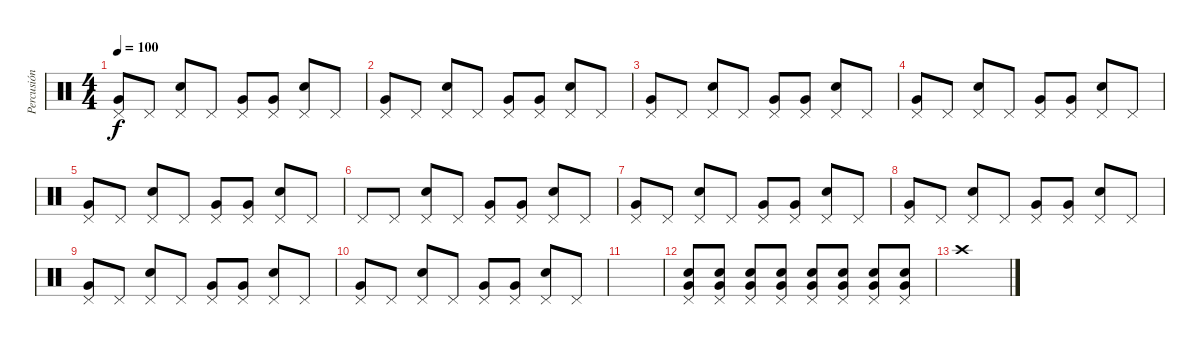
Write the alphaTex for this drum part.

\track ("Percusión" "Percusión") {instrument percussion}
\staff {score}
\articulation defaults
\ts (4 4)
\tempo 100
\clef neutral
\ks c
("Pedal Hi-Hat (hit)" "Very Low Tom (hit)").8{dy f} "Pedal Hi-Hat (hit)".8 ("Pedal Hi-Hat (hit)" "Snare (hit) 2").8 "Pedal Hi-Hat (hit)".8 ("Pedal Hi-Hat (hit)" "Very Low Tom (hit)").8 ("Pedal Hi-Hat (hit)" "Very Low Tom (hit)").8 ("Pedal Hi-Hat (hit)" "Snare (hit) 2").8 "Pedal Hi-Hat (hit)".8 |
("Pedal Hi-Hat (hit)" "Very Low Tom (hit)").8 "Pedal Hi-Hat (hit)".8 ("Pedal Hi-Hat (hit)" "Snare (hit) 2").8 "Pedal Hi-Hat (hit)".8 ("Pedal Hi-Hat (hit)" "Very Low Tom (hit)").8 ("Pedal Hi-Hat (hit)" "Very Low Tom (hit)").8 ("Pedal Hi-Hat (hit)" "Snare (hit) 2").8 "Pedal Hi-Hat (hit)".8 |
("Pedal Hi-Hat (hit)" "Very Low Tom (hit)").8 "Pedal Hi-Hat (hit)".8 ("Pedal Hi-Hat (hit)" "Snare (hit) 2").8 "Pedal Hi-Hat (hit)".8 ("Pedal Hi-Hat (hit)" "Very Low Tom (hit)").8 ("Pedal Hi-Hat (hit)" "Very Low Tom (hit)").8 ("Pedal Hi-Hat (hit)" "Snare (hit) 2").8 "Pedal Hi-Hat (hit)".8 |
("Pedal Hi-Hat (hit)" "Very Low Tom (hit)").8 "Pedal Hi-Hat (hit)".8 ("Pedal Hi-Hat (hit)" "Snare (hit) 2").8 "Pedal Hi-Hat (hit)".8 ("Pedal Hi-Hat (hit)" "Very Low Tom (hit)").8 ("Pedal Hi-Hat (hit)" "Very Low Tom (hit)").8 ("Pedal Hi-Hat (hit)" "Snare (hit) 2").8 "Pedal Hi-Hat (hit)".8 |
("Pedal Hi-Hat (hit)" "Very Low Tom (hit)").8 "Pedal Hi-Hat (hit)".8 ("Pedal Hi-Hat (hit)" "Snare (hit) 2").8 "Pedal Hi-Hat (hit)".8 ("Pedal Hi-Hat (hit)" "Very Low Tom (hit)").8 ("Pedal Hi-Hat (hit)" "Very Low Tom (hit)").8 ("Pedal Hi-Hat (hit)" "Snare (hit) 2").8 "Pedal Hi-Hat (hit)".8 |
"Pedal Hi-Hat (hit)".8 "Pedal Hi-Hat (hit)".8 ("Pedal Hi-Hat (hit)" "Snare (hit) 2").8 "Pedal Hi-Hat (hit)".8 ("Pedal Hi-Hat (hit)" "Very Low Tom (hit)").8 ("Pedal Hi-Hat (hit)" "Very Low Tom (hit)").8 ("Pedal Hi-Hat (hit)" "Snare (hit) 2").8 "Pedal Hi-Hat (hit)".8 |
("Pedal Hi-Hat (hit)" "Very Low Tom (hit)").8 "Pedal Hi-Hat (hit)".8 ("Pedal Hi-Hat (hit)" "Snare (hit) 2").8 "Pedal Hi-Hat (hit)".8 ("Pedal Hi-Hat (hit)" "Very Low Tom (hit)").8 ("Pedal Hi-Hat (hit)" "Very Low Tom (hit)").8 ("Pedal Hi-Hat (hit)" "Snare (hit) 2").8 "Pedal Hi-Hat (hit)".8 |
("Pedal Hi-Hat (hit)" "Very Low Tom (hit)").8 "Pedal Hi-Hat (hit)".8 ("Pedal Hi-Hat (hit)" "Snare (hit) 2").8 "Pedal Hi-Hat (hit)".8 ("Pedal Hi-Hat (hit)" "Very Low Tom (hit)").8 ("Pedal Hi-Hat (hit)" "Very Low Tom (hit)").8 ("Pedal Hi-Hat (hit)" "Snare (hit) 2").8 "Pedal Hi-Hat (hit)".8 |
("Pedal Hi-Hat (hit)" "Very Low Tom (hit)").8 "Pedal Hi-Hat (hit)".8 ("Pedal Hi-Hat (hit)" "Snare (hit) 2").8 "Pedal Hi-Hat (hit)".8 ("Pedal Hi-Hat (hit)" "Very Low Tom (hit)").8 ("Pedal Hi-Hat (hit)" "Very Low Tom (hit)").8 ("Pedal Hi-Hat (hit)" "Snare (hit) 2").8 "Pedal Hi-Hat (hit)".8 |
("Pedal Hi-Hat (hit)" "Very Low Tom (hit)").8 "Pedal Hi-Hat (hit)".8 ("Pedal Hi-Hat (hit)" "Snare (hit) 2").8 "Pedal Hi-Hat (hit)".8 ("Pedal Hi-Hat (hit)" "Very Low Tom (hit)").8 ("Pedal Hi-Hat (hit)" "Very Low Tom (hit)").8 ("Pedal Hi-Hat (hit)" "Snare (hit) 2").8 "Pedal Hi-Hat (hit)".8 |
|
("Pedal Hi-Hat (hit)" "Snare (hit) 2" "Very Low Tom (hit)").8 ("Pedal Hi-Hat (hit)" "Snare (hit) 2" "Very Low Tom (hit)").8 ("Pedal Hi-Hat (hit)" "Snare (hit) 2" "Very Low Tom (hit)").8 ("Pedal Hi-Hat (hit)" "Snare (hit) 2" "Very Low Tom (hit)").8 ("Pedal Hi-Hat (hit)" "Snare (hit) 2" "Very Low Tom (hit)").8 ("Pedal Hi-Hat (hit)" "Snare (hit) 2" "Very Low Tom (hit)").8 ("Pedal Hi-Hat (hit)" "Snare (hit) 2" "Very Low Tom (hit)").8 ("Pedal Hi-Hat (hit)" "Snare (hit) 2" "Very Low Tom (hit)").8 |
"Crash high (hit)".1
